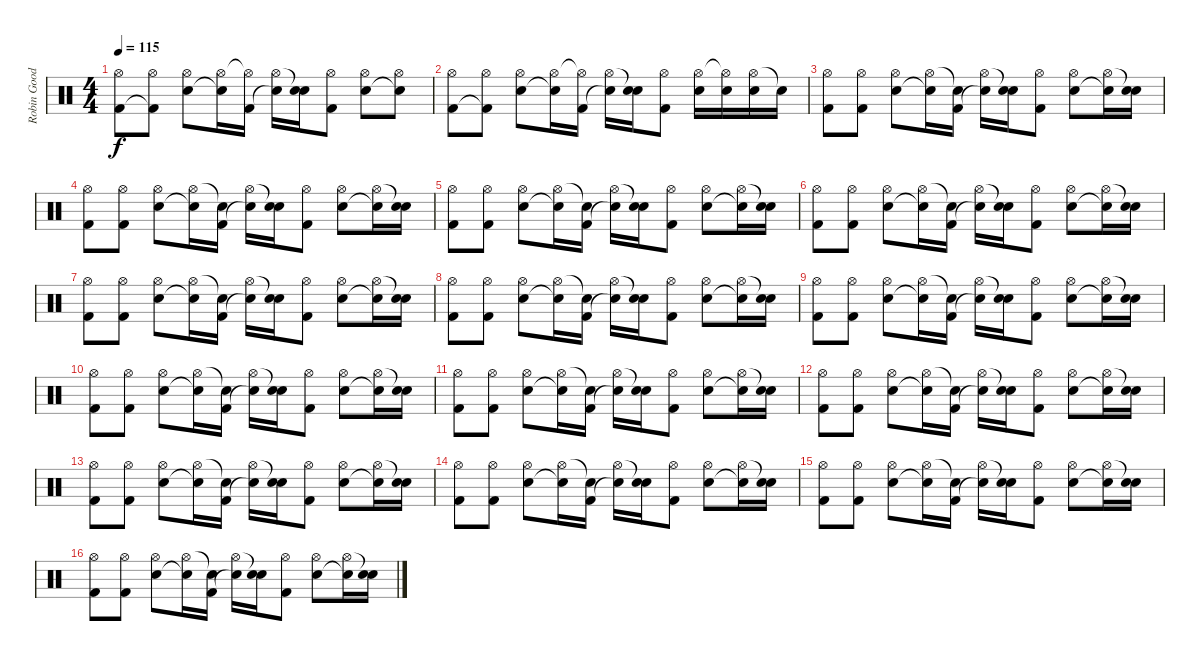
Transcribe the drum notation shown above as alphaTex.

\track ("Robin Goodridge" "Robin Good") {instrument percussion}
\staff {score}
\articulation defaults
\ts (4 4)
\tempo 115
\clef neutral
\ks c
("Hi-Hat (open)" "Kick (hit) 2").8{dy f} ("Hi-Hat (open)" "Kick (hit) 2"{t}).8 ("Hi-Hat (open)" "Snare (hit) 2").8 ("Hi-Hat (open)" "Snare (hit)"{t}).16 ("Hi-Hat (open)"{t} "Kick (hit) 2").16 ("Hi-Hat (open)" "Snare (hit)"{t}).16 ("Snare (hit)"{t} "Snare (hit) 2").16 ("Hi-Hat (open)" "Kick (hit) 2").8 ("Hi-Hat (open)" "Snare (hit) 2").8 ("Hi-Hat (open)" "Snare (hit) 2"{t}).8 |
("Hi-Hat (open)" "Kick (hit) 2").8 ("Hi-Hat (open)" "Kick (hit) 2"{t}).8 ("Hi-Hat (open)" "Snare (hit) 2").8 ("Hi-Hat (open)" "Snare (hit)"{t}).16 ("Hi-Hat (open)"{t} "Kick (hit) 2").16 ("Hi-Hat (open)" "Snare (hit)"{t}).16 ("Snare (hit)"{t} "Snare (hit) 2").16 ("Hi-Hat (open)" "Kick (hit) 2").8 ("Hi-Hat (open)" "Snare (hit) 2").16 ("Hi-Hat (open)"{t} "Snare (hit) 2").16 ("Hi-Hat (open)" "Snare (hit) 2").16 "Snare (hit)"{t}.16 |
("Hi-Hat (open)" "Kick (hit) 2").8 ("Hi-Hat (open)" "Kick (hit) 2").8 ("Hi-Hat (open)" "Snare (hit) 2").8 ("Hi-Hat (open)" "Snare (hit)"{t}).16 ("Snare (hit)"{t} "Kick (hit) 2").16 ("Hi-Hat (open)" "Snare (hit)"{t}).16 ("Snare (hit)"{t} "Snare (hit) 2").16 ("Hi-Hat (open)" "Kick (hit) 2").8 ("Hi-Hat (open)" "Snare (hit) 2").8 ("Hi-Hat (open)" "Snare (hit) 2"{t}).16 ("Snare (hit)"{t} "Snare (hit) 2").16 |
("Hi-Hat (open)" "Kick (hit) 2").8 ("Hi-Hat (open)" "Kick (hit) 2").8 ("Hi-Hat (open)" "Snare (hit) 2").8 ("Hi-Hat (open)" "Snare (hit)"{t}).16 ("Snare (hit)"{t} "Kick (hit) 2").16 ("Hi-Hat (open)" "Snare (hit)"{t}).16 ("Snare (hit)"{t} "Snare (hit) 2").16 ("Hi-Hat (open)" "Kick (hit) 2").8 ("Hi-Hat (open)" "Snare (hit) 2").8 ("Hi-Hat (open)" "Snare (hit) 2"{t}).16 ("Snare (hit)"{t} "Snare (hit) 2").16 |
("Hi-Hat (open)" "Kick (hit) 2").8 ("Hi-Hat (open)" "Kick (hit) 2").8 ("Hi-Hat (open)" "Snare (hit) 2").8 ("Hi-Hat (open)" "Snare (hit)"{t}).16 ("Snare (hit)"{t} "Kick (hit) 2").16 ("Hi-Hat (open)" "Snare (hit)"{t}).16 ("Snare (hit)"{t} "Snare (hit) 2").16 ("Hi-Hat (open)" "Kick (hit) 2").8 ("Hi-Hat (open)" "Snare (hit) 2").8 ("Hi-Hat (open)" "Snare (hit) 2"{t}).16 ("Snare (hit)"{t} "Snare (hit) 2").16 |
("Hi-Hat (open)" "Kick (hit) 2").8 ("Hi-Hat (open)" "Kick (hit) 2").8 ("Hi-Hat (open)" "Snare (hit) 2").8 ("Hi-Hat (open)" "Snare (hit)"{t}).16 ("Snare (hit)"{t} "Kick (hit) 2").16 ("Hi-Hat (open)" "Snare (hit)"{t}).16 ("Snare (hit)"{t} "Snare (hit) 2").16 ("Hi-Hat (open)" "Kick (hit) 2").8 ("Hi-Hat (open)" "Snare (hit) 2").8 ("Hi-Hat (open)" "Snare (hit) 2"{t}).16 ("Snare (hit)"{t} "Snare (hit) 2").16 |
("Hi-Hat (open)" "Kick (hit) 2").8 ("Hi-Hat (open)" "Kick (hit) 2").8 ("Hi-Hat (open)" "Snare (hit) 2").8 ("Hi-Hat (open)" "Snare (hit)"{t}).16 ("Snare (hit)"{t} "Kick (hit) 2").16 ("Hi-Hat (open)" "Snare (hit)"{t}).16 ("Snare (hit)"{t} "Snare (hit) 2").16 ("Hi-Hat (open)" "Kick (hit) 2").8 ("Hi-Hat (open)" "Snare (hit) 2").8 ("Hi-Hat (open)" "Snare (hit) 2"{t}).16 ("Snare (hit)"{t} "Snare (hit) 2").16 |
("Hi-Hat (open)" "Kick (hit) 2").8 ("Hi-Hat (open)" "Kick (hit) 2").8 ("Hi-Hat (open)" "Snare (hit) 2").8 ("Hi-Hat (open)" "Snare (hit)"{t}).16 ("Snare (hit)"{t} "Kick (hit) 2").16 ("Hi-Hat (open)" "Snare (hit)"{t}).16 ("Snare (hit)"{t} "Snare (hit) 2").16 ("Hi-Hat (open)" "Kick (hit) 2").8 ("Hi-Hat (open)" "Snare (hit) 2").8 ("Hi-Hat (open)" "Snare (hit) 2"{t}).16 ("Snare (hit)"{t} "Snare (hit) 2").16 |
("Hi-Hat (open)" "Kick (hit) 2").8 ("Hi-Hat (open)" "Kick (hit) 2").8 ("Hi-Hat (open)" "Snare (hit) 2").8 ("Hi-Hat (open)" "Snare (hit)"{t}).16 ("Snare (hit)"{t} "Kick (hit) 2").16 ("Hi-Hat (open)" "Snare (hit)"{t}).16 ("Snare (hit)"{t} "Snare (hit) 2").16 ("Hi-Hat (open)" "Kick (hit) 2").8 ("Hi-Hat (open)" "Snare (hit) 2").8 ("Hi-Hat (open)" "Snare (hit) 2"{t}).16 ("Snare (hit)"{t} "Snare (hit) 2").16 |
("Hi-Hat (open)" "Kick (hit) 2").8 ("Hi-Hat (open)" "Kick (hit) 2").8 ("Hi-Hat (open)" "Snare (hit) 2").8 ("Hi-Hat (open)" "Snare (hit)"{t}).16 ("Snare (hit)"{t} "Kick (hit) 2").16 ("Hi-Hat (open)" "Snare (hit)"{t}).16 ("Snare (hit)"{t} "Snare (hit) 2").16 ("Hi-Hat (open)" "Kick (hit) 2").8 ("Hi-Hat (open)" "Snare (hit) 2").8 ("Hi-Hat (open)" "Snare (hit) 2"{t}).16 ("Snare (hit)"{t} "Snare (hit) 2").16 |
("Hi-Hat (open)" "Kick (hit) 2").8 ("Hi-Hat (open)" "Kick (hit) 2").8 ("Hi-Hat (open)" "Snare (hit) 2").8 ("Hi-Hat (open)" "Snare (hit)"{t}).16 ("Snare (hit)"{t} "Kick (hit) 2").16 ("Hi-Hat (open)" "Snare (hit)"{t}).16 ("Snare (hit)"{t} "Snare (hit) 2").16 ("Hi-Hat (open)" "Kick (hit) 2").8 ("Hi-Hat (open)" "Snare (hit) 2").8 ("Hi-Hat (open)" "Snare (hit) 2"{t}).16 ("Snare (hit)"{t} "Snare (hit) 2").16 |
("Hi-Hat (open)" "Kick (hit) 2").8 ("Hi-Hat (open)" "Kick (hit) 2").8 ("Hi-Hat (open)" "Snare (hit) 2").8 ("Hi-Hat (open)" "Snare (hit)"{t}).16 ("Snare (hit)"{t} "Kick (hit) 2").16 ("Hi-Hat (open)" "Snare (hit)"{t}).16 ("Snare (hit)"{t} "Snare (hit) 2").16 ("Hi-Hat (open)" "Kick (hit) 2").8 ("Hi-Hat (open)" "Snare (hit) 2").8 ("Hi-Hat (open)" "Snare (hit) 2"{t}).16 ("Snare (hit)"{t} "Snare (hit) 2").16 |
("Hi-Hat (open)" "Kick (hit) 2").8 ("Hi-Hat (open)" "Kick (hit) 2").8 ("Hi-Hat (open)" "Snare (hit) 2").8 ("Hi-Hat (open)" "Snare (hit)"{t}).16 ("Snare (hit)"{t} "Kick (hit) 2").16 ("Hi-Hat (open)" "Snare (hit)"{t}).16 ("Snare (hit)"{t} "Snare (hit) 2").16 ("Hi-Hat (open)" "Kick (hit) 2").8 ("Hi-Hat (open)" "Snare (hit) 2").8 ("Hi-Hat (open)" "Snare (hit) 2"{t}).16 ("Snare (hit)"{t} "Snare (hit) 2").16 |
("Hi-Hat (open)" "Kick (hit) 2").8 ("Hi-Hat (open)" "Kick (hit) 2").8 ("Hi-Hat (open)" "Snare (hit) 2").8 ("Hi-Hat (open)" "Snare (hit)"{t}).16 ("Snare (hit)"{t} "Kick (hit) 2").16 ("Hi-Hat (open)" "Snare (hit)"{t}).16 ("Snare (hit)"{t} "Snare (hit) 2").16 ("Hi-Hat (open)" "Kick (hit) 2").8 ("Hi-Hat (open)" "Snare (hit) 2").8 ("Hi-Hat (open)" "Snare (hit) 2"{t}).16 ("Snare (hit)"{t} "Snare (hit) 2").16 |
("Hi-Hat (open)" "Kick (hit) 2").8 ("Hi-Hat (open)" "Kick (hit) 2").8 ("Hi-Hat (open)" "Snare (hit) 2").8 ("Hi-Hat (open)" "Snare (hit)"{t}).16 ("Snare (hit)"{t} "Kick (hit) 2").16 ("Hi-Hat (open)" "Snare (hit)"{t}).16 ("Snare (hit)"{t} "Snare (hit) 2").16 ("Hi-Hat (open)" "Kick (hit) 2").8 ("Hi-Hat (open)" "Snare (hit) 2").8 ("Hi-Hat (open)" "Snare (hit) 2"{t}).16 ("Snare (hit)"{t} "Snare (hit) 2").16 |
("Hi-Hat (open)" "Kick (hit) 2").8 ("Hi-Hat (open)" "Kick (hit) 2").8 ("Hi-Hat (open)" "Snare (hit) 2").8 ("Hi-Hat (open)" "Snare (hit)"{t}).16 ("Snare (hit)"{t} "Kick (hit) 2").16 ("Hi-Hat (open)" "Snare (hit)"{t}).16 ("Snare (hit)"{t} "Snare (hit) 2").16 ("Hi-Hat (open)" "Kick (hit) 2").8 ("Hi-Hat (open)" "Snare (hit) 2").8 ("Hi-Hat (open)" "Snare (hit) 2"{t}).16 ("Snare (hit)"{t} "Snare (hit) 2").16
